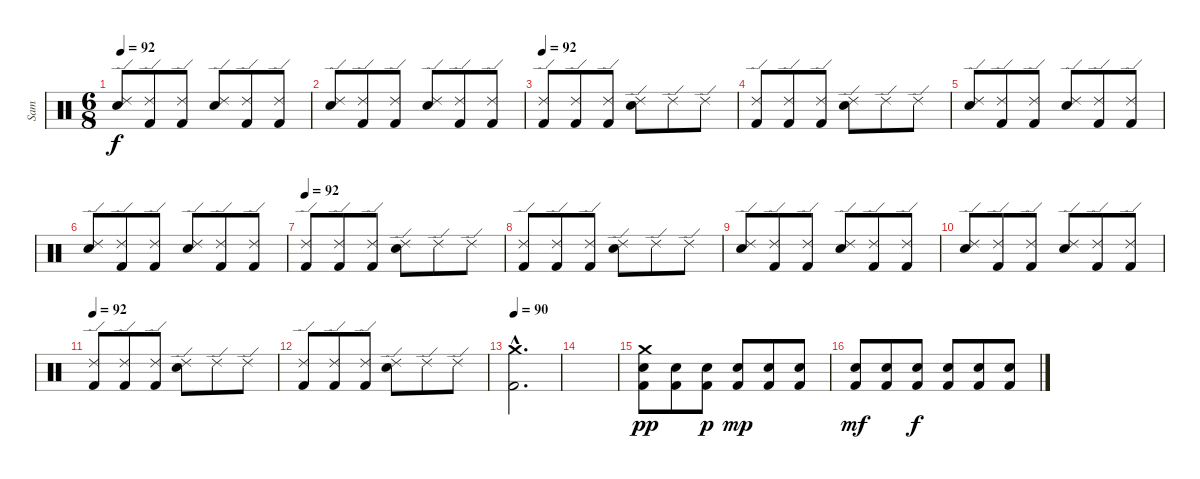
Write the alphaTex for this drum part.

\track ("Sam" "Sam") {instrument percussion}
\staff {score}
\articulation defaults
\ts (6 8)
\tempo 92
\clef neutral
\ks c
("Ride (edge) 2" "Snare (hit) 2").8{dy f} ("Ride (edge) 2" "Kick (hit) 2").8 ("Ride (edge) 2" "Kick (hit) 2").8 ("Ride (edge) 2" "Snare (hit) 2").8 ("Ride (edge) 2" "Kick (hit) 2").8 ("Ride (edge) 2" "Kick (hit) 2").8 |
("Ride (edge) 2" "Snare (hit) 2").8 ("Ride (edge) 2" "Kick (hit) 2").8 ("Ride (edge) 2" "Kick (hit) 2").8 ("Ride (edge) 2" "Snare (hit) 2").8 ("Ride (edge) 2" "Kick (hit) 2").8 ("Ride (edge) 2" "Kick (hit) 2").8 |
\tempo 92
("Ride (edge) 2" "Kick (hit) 2").8 ("Ride (edge) 2" "Kick (hit) 2").8 ("Ride (edge) 2" "Kick (hit) 2").8 ("Ride (edge) 2" "Snare (hit) 2").8 "Ride (edge) 2".8 "Ride (edge) 2".8 |
("Ride (edge) 2" "Kick (hit) 2").8 ("Ride (edge) 2" "Kick (hit) 2").8 ("Ride (edge) 2" "Kick (hit) 2").8 ("Ride (edge) 2" "Snare (hit) 2").8 "Ride (edge) 2".8 "Ride (edge) 2".8 |
("Ride (edge) 2" "Snare (hit) 2").8 ("Ride (edge) 2" "Kick (hit) 2").8 ("Ride (edge) 2" "Kick (hit) 2").8 ("Ride (edge) 2" "Snare (hit) 2").8 ("Ride (edge) 2" "Kick (hit) 2").8 ("Ride (edge) 2" "Kick (hit) 2").8 |
("Ride (edge) 2" "Snare (hit) 2").8 ("Ride (edge) 2" "Kick (hit) 2").8 ("Ride (edge) 2" "Kick (hit) 2").8 ("Ride (edge) 2" "Snare (hit) 2").8 ("Ride (edge) 2" "Kick (hit) 2").8 ("Ride (edge) 2" "Kick (hit) 2").8 |
\tempo 92
("Ride (edge) 2" "Kick (hit) 2").8 ("Ride (edge) 2" "Kick (hit) 2").8 ("Ride (edge) 2" "Kick (hit) 2").8 ("Ride (edge) 2" "Snare (hit) 2").8 "Ride (edge) 2".8 "Ride (edge) 2".8 |
("Ride (edge) 2" "Kick (hit) 2").8 ("Ride (edge) 2" "Kick (hit) 2").8 ("Ride (edge) 2" "Kick (hit) 2").8 ("Ride (edge) 2" "Snare (hit) 2").8 "Ride (edge) 2".8 "Ride (edge) 2".8 |
("Ride (edge) 2" "Snare (hit) 2").8 ("Ride (edge) 2" "Kick (hit) 2").8 ("Ride (edge) 2" "Kick (hit) 2").8 ("Ride (edge) 2" "Snare (hit) 2").8 ("Ride (edge) 2" "Kick (hit) 2").8 ("Ride (edge) 2" "Kick (hit) 2").8 |
("Ride (edge) 2" "Snare (hit) 2").8 ("Ride (edge) 2" "Kick (hit) 2").8 ("Ride (edge) 2" "Kick (hit) 2").8 ("Ride (edge) 2" "Snare (hit) 2").8 ("Ride (edge) 2" "Kick (hit) 2").8 ("Ride (edge) 2" "Kick (hit) 2").8 |
\tempo 92
("Ride (edge) 2" "Kick (hit) 2").8 ("Ride (edge) 2" "Kick (hit) 2").8 ("Ride (edge) 2" "Kick (hit) 2").8 ("Ride (edge) 2" "Snare (hit) 2").8 "Ride (edge) 2".8 "Ride (edge) 2".8 |
("Ride (edge) 2" "Kick (hit) 2").8 ("Ride (edge) 2" "Kick (hit) 2").8 ("Ride (edge) 2" "Kick (hit) 2").8 ("Ride (edge) 2" "Snare (hit) 2").8 "Ride (edge) 2".8 "Ride (edge) 2".8 |
\tempo 90
("Crash medium (hit)"{hac} "Kick (hit) 2"{hac}).2{d} |
|
("Crash medium (hit)" "Snare (hit) 2" "Kick (hit) 2").8{dy pp} ("Snare (hit) 2" "Kick (hit) 2").8 ("Snare (hit) 2" "Kick (hit) 2").8{dy p} ("Snare (hit) 2" "Kick (hit) 2").8{dy mp} ("Snare (hit) 2" "Kick (hit) 2").8 ("Snare (hit) 2" "Kick (hit) 2").8 |
("Snare (hit) 2" "Kick (hit) 2").8{dy mf} ("Snare (hit) 2" "Kick (hit) 2").8 ("Snare (hit) 2" "Kick (hit) 2").8{dy f} ("Snare (hit) 2" "Kick (hit) 2").8 ("Snare (hit) 2" "Kick (hit) 2").8 ("Snare (hit) 2" "Kick (hit) 2").8
